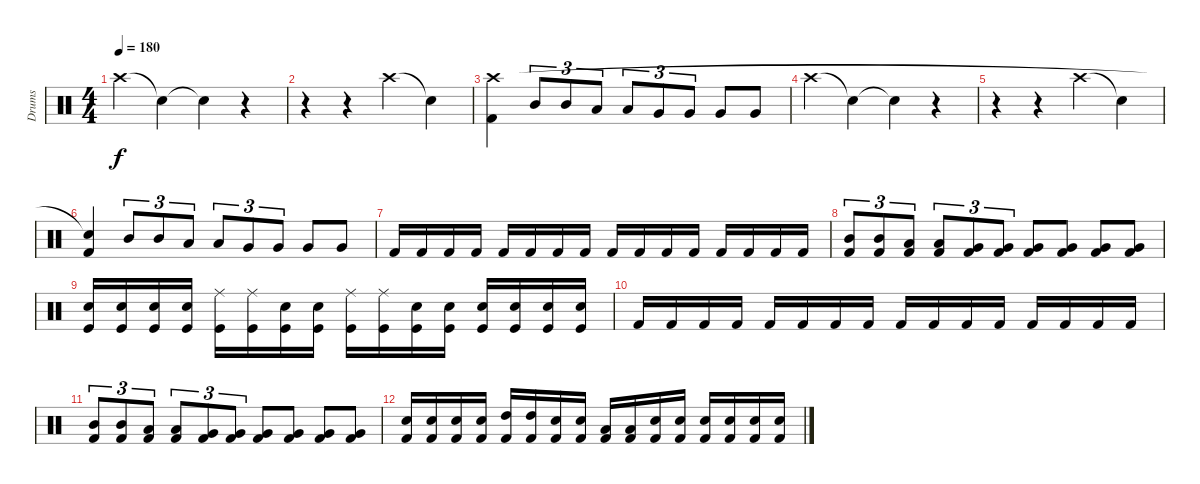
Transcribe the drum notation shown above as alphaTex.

\track ("Drums" "Drums") {instrument percussion}
\staff {score}
\articulation defaults
\ts (4 4)
\tempo 180
\clef neutral
\ks c "Crash high (hit)".4{dy f} "Snare (hit)"{t}.4 "Snare (hit)"{t}.4
r.4 |
r.4 r.4 "Crash high (hit)".4 "Snare (hit)"{t}.4 |
("Kick (hit) 2" "Crash high (hit)").4 "Mid Tom (hit)".8{tu (3 2)} "Mid Tom (hit)".8{tu (3 2)} "Low Tom (hit)".8{tu (3 2)} "Low Tom (hit)".8{tu (3 2)} "Very Low Tom (hit)".8{tu (3 2)} "Very Low Tom (hit)".8{tu (3 2)} "Very Low Tom (hit)".8 "Very Low Tom (hit)".8 |
"Crash high (hit)".4 "Snare (hit)"{t}.4 "Snare (hit)"{t}.4 r.4 |
r.4 r.4 "Crash high (hit)".4 "Snare (hit)"{t}.4 |
("Kick (hit) 2" "Snare (hit)"{t}).4 "Mid Tom (hit)".8{tu (3 2)} "Mid Tom (hit)".8{tu (3 2)} "Low Tom (hit)".8{tu (3 2)} "Low Tom (hit)".8{tu (3 2)} "Very Low Tom (hit)".8{tu (3 2)} "Very Low Tom (hit)".8{tu (3 2)} "Very Low Tom (hit)".8 "Very Low Tom (hit)".8 |
"Kick (hit) 2".16 "Kick (hit) 2".16 "Kick (hit) 2".16 "Kick (hit) 2".16 "Kick (hit) 2".16 "Kick (hit) 2".16 "Kick (hit) 2".16 "Kick (hit) 2".16 "Kick (hit) 2".16 "Kick (hit) 2".16 "Kick (hit) 2".16 "Kick (hit) 2".16 "Kick (hit) 2".16 "Kick (hit) 2".16 "Kick (hit) 2".16 "Kick (hit) 2".16 |
("Kick (hit) 2" "Mid Tom (hit)").8{tu (3 2)} ("Kick (hit) 2" "Mid Tom (hit)").8{tu (3 2)} ("Kick (hit) 2" "Low Tom (hit)").8{tu (3 2)} ("Kick (hit) 2" "Low Tom (hit)").8{tu (3 2)} ("Kick (hit) 2" "Very Low Tom (hit)").8{tu (3 2)} ("Kick (hit) 2" "Very Low Tom (hit)").8{tu (3 2)} ("Kick (hit) 2" "Very Low Tom (hit)").8 ("Kick (hit) 2" "Very Low Tom (hit)").8 ("Kick (hit) 2" "Very Low Tom (hit)").8 ("Kick (hit) 2" "Very Low Tom (hit)").8 |
("Kick (hit)" "Snare (hit) 2").16 ("Kick (hit)" "Snare (hit) 2").16 ("Kick (hit)" "Snare (hit) 2").16 ("Kick (hit)" "Snare (hit) 2").16 ("Kick (hit)" "Ride (middle)").16 ("Kick (hit)" "Ride (middle)").16 ("Kick (hit)" "Snare (hit) 2").16 ("Kick (hit)" "Snare (hit) 2").16 ("Kick (hit)" "Ride (middle)").16 ("Kick (hit)" "Ride (middle)").16 ("Kick (hit)" "Snare (hit) 2").16 ("Kick (hit)" "Snare (hit) 2").16 ("Kick (hit)" "Snare (hit) 2").16 ("Kick (hit)" "Snare (hit) 2").16 ("Kick (hit)" "Snare (hit) 2").16 ("Kick (hit)" "Snare (hit) 2").16 |
"Kick (hit) 2".16 "Kick (hit) 2".16 "Kick (hit) 2".16 "Kick (hit) 2".16 "Kick (hit) 2".16 "Kick (hit) 2".16 "Kick (hit) 2".16 "Kick (hit) 2".16 "Kick (hit) 2".16 "Kick (hit) 2".16 "Kick (hit) 2".16 "Kick (hit) 2".16 "Kick (hit) 2".16 "Kick (hit) 2".16 "Kick (hit) 2".16 "Kick (hit) 2".16 |
("Kick (hit) 2" "Mid Tom (hit)").8{tu (3 2)} ("Kick (hit) 2" "Mid Tom (hit)").8{tu (3 2)} ("Kick (hit) 2" "Low Tom (hit)").8{tu (3 2)} ("Kick (hit) 2" "Low Tom (hit)").8{tu (3 2)} ("Kick (hit) 2" "Very Low Tom (hit)").8{tu (3 2)} ("Kick (hit) 2" "Very Low Tom (hit)").8{tu (3 2)} ("Kick (hit) 2" "Very Low Tom (hit)").8 ("Kick (hit) 2" "Very Low Tom (hit)").8 ("Kick (hit) 2" "Very Low Tom (hit)").8 ("Kick (hit) 2" "Very Low Tom (hit)").8 |
("Kick (hit) 2" "Snare (hit) 2").16 ("Kick (hit) 2" "Snare (hit) 2").16 ("Kick (hit) 2" "Snare (hit) 2").16 ("Kick (hit) 2" "Snare (hit) 2").16 ("Kick (hit) 2" "High Tom (hit)").16 ("Kick (hit) 2" "High Tom (hit)").16 ("Kick (hit) 2" "Snare (hit) 2").16 ("Kick (hit) 2" "Snare (hit) 2").16 ("Kick (hit) 2" "Low Tom (hit)").16 ("Kick (hit) 2" "Low Tom (hit)").16 ("Kick (hit) 2" "Snare (hit) 2").16 ("Kick (hit) 2" "Snare (hit) 2").16 ("Kick (hit) 2" "Snare (hit) 2").16 ("Kick (hit) 2" "Snare (hit) 2").16 ("Kick (hit) 2" "Snare (hit) 2").16 ("Kick (hit) 2" "Snare (hit) 2").16
